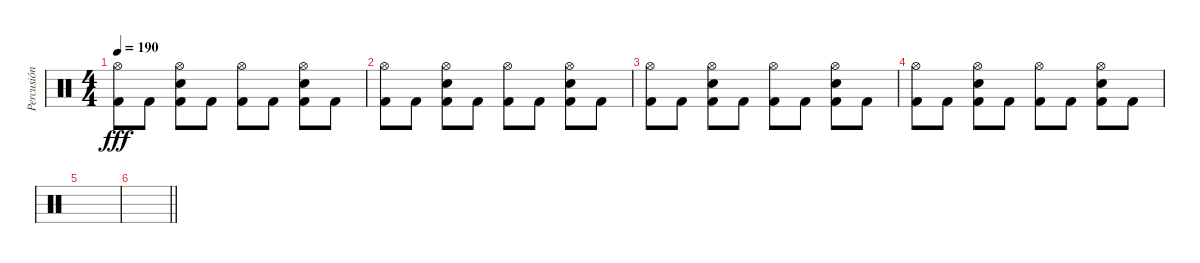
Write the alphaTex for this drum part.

\track ("Percusión" "Percusión") {instrument percussion}
\staff {score}
\articulation defaults
\ts (4 4)
\tempo 190
\clef neutral
\ks c
("Hi-Hat (open)" "Kick (hit) 2").8{dy fff} "Kick (hit) 2".8 ("Hi-Hat (open)" "Electric Snare (hit)" "Kick (hit) 2").8 "Kick (hit) 2".8 ("Hi-Hat (open)" "Kick (hit) 2").8 "Kick (hit) 2".8 ("Hi-Hat (open)" "Electric Snare (hit)" "Kick (hit) 2").8 "Kick (hit) 2".8 |
("Hi-Hat (open)" "Kick (hit) 2").8 "Kick (hit) 2".8 ("Hi-Hat (open)" "Electric Snare (hit)" "Kick (hit) 2").8 "Kick (hit) 2".8 ("Hi-Hat (open)" "Kick (hit) 2").8 "Kick (hit) 2".8 ("Hi-Hat (open)" "Electric Snare (hit)" "Kick (hit) 2").8 "Kick (hit) 2".8 |
("Hi-Hat (open)" "Kick (hit) 2").8 "Kick (hit) 2".8 ("Hi-Hat (open)" "Electric Snare (hit)" "Kick (hit) 2").8 "Kick (hit) 2".8 ("Hi-Hat (open)" "Kick (hit) 2").8 "Kick (hit) 2".8 ("Hi-Hat (open)" "Electric Snare (hit)" "Kick (hit) 2").8 "Kick (hit) 2".8 |
("Hi-Hat (open)" "Kick (hit) 2").8 "Kick (hit) 2".8 ("Hi-Hat (open)" "Electric Snare (hit)" "Kick (hit) 2").8 "Kick (hit) 2".8 ("Hi-Hat (open)" "Kick (hit) 2").8 "Kick (hit) 2".8 ("Hi-Hat (open)" "Electric Snare (hit)" "Kick (hit) 2").8 "Kick (hit) 2".8 |
|
\barLineRight lightlight
